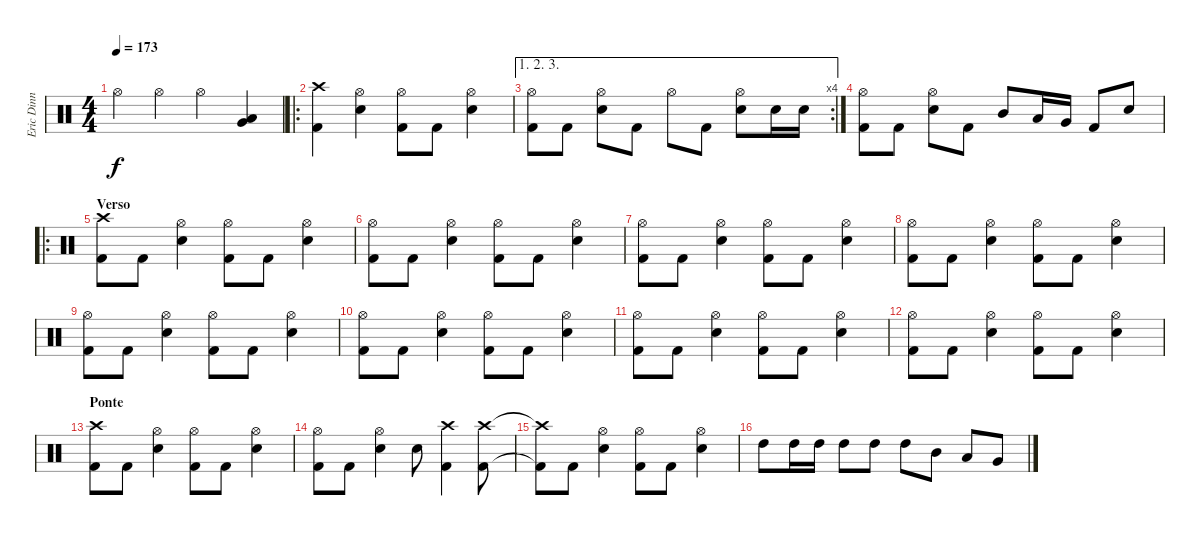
\track ("Eric Dinn" "Eric Dinn") {instrument percussion}
\staff {score}
\articulation defaults
\ts (4 4)
\tempo 173
\clef neutral
\ks c "Hi-Hat (open)".4{dy f} "Hi-Hat (open)".4 "Hi-Hat (open)".4
("Low Tom (hit)" "Very Low Tom (hit)").4 |
\ro
("Crash high (hit)" "Kick (hit) 2").4 ("Hi-Hat (open)" "Snare (hit) 2").4 ("Hi-Hat (open)" "Kick (hit) 2").8 "Kick (hit) 2".8 ("Hi-Hat (open)" "Snare (hit) 2").4 |
\ae (1 2 3)
\rc 4
("Hi-Hat (open)" "Kick (hit) 2").8 "Kick (hit) 2".8 ("Hi-Hat (open)" "Snare (hit) 2").8 "Kick (hit) 2".8 "Hi-Hat (open)".8 "Kick (hit) 2".8 ("Hi-Hat (open)" "Snare (hit) 2").8 "Snare (hit) 2".16 "Snare (hit) 2".16 |
("Hi-Hat (open)" "Kick (hit) 2").8 "Kick (hit) 2".8 ("Hi-Hat (open)" "Snare (hit) 2").8 "Kick (hit) 2".8 "Mid Tom (hit)".8 "Low Tom (hit)".16 "Very Low Tom (hit)".16 "Kick (hit) 2".8 "Snare (hit) 2".8 |
\ro
\section ("" "Verso")
("Crash high (hit)" "Kick (hit) 2").8 "Kick (hit) 2".8 ("Hi-Hat (open)" "Snare (hit) 2").4 ("Hi-Hat (open)" "Kick (hit) 2").8 "Kick (hit) 2".8 ("Hi-Hat (open)" "Snare (hit) 2").4 |
("Hi-Hat (open)" "Kick (hit) 2").8 "Kick (hit) 2".8 ("Hi-Hat (open)" "Snare (hit) 2").4 ("Hi-Hat (open)" "Kick (hit) 2").8 "Kick (hit) 2".8 ("Hi-Hat (open)" "Snare (hit) 2").4 |
("Hi-Hat (open)" "Kick (hit) 2").8 "Kick (hit) 2".8 ("Hi-Hat (open)" "Snare (hit) 2").4 ("Hi-Hat (open)" "Kick (hit) 2").8 "Kick (hit) 2".8 ("Hi-Hat (open)" "Snare (hit) 2").4 |
("Hi-Hat (open)" "Kick (hit) 2").8 "Kick (hit) 2".8 ("Hi-Hat (open)" "Snare (hit) 2").4 ("Hi-Hat (open)" "Kick (hit) 2").8 "Kick (hit) 2".8 ("Hi-Hat (open)" "Snare (hit) 2").4 |
("Hi-Hat (open)" "Kick (hit) 2").8 "Kick (hit) 2".8 ("Hi-Hat (open)" "Snare (hit) 2").4 ("Hi-Hat (open)" "Kick (hit) 2").8 "Kick (hit) 2".8 ("Hi-Hat (open)" "Snare (hit) 2").4 |
("Hi-Hat (open)" "Kick (hit) 2").8 "Kick (hit) 2".8 ("Hi-Hat (open)" "Snare (hit) 2").4 ("Hi-Hat (open)" "Kick (hit) 2").8 "Kick (hit) 2".8 ("Hi-Hat (open)" "Snare (hit) 2").4 |
("Hi-Hat (open)" "Kick (hit) 2").8 "Kick (hit) 2".8 ("Hi-Hat (open)" "Snare (hit) 2").4 ("Hi-Hat (open)" "Kick (hit) 2").8 "Kick (hit) 2".8 ("Hi-Hat (open)" "Snare (hit) 2").4 |
("Hi-Hat (open)" "Kick (hit) 2").8 "Kick (hit) 2".8 ("Hi-Hat (open)" "Snare (hit) 2").4 ("Hi-Hat (open)" "Kick (hit) 2").8 "Kick (hit) 2".8 ("Hi-Hat (open)" "Snare (hit) 2").4 |
\section ("" "Ponte")
("Crash high (hit)" "Kick (hit) 2").8 "Kick (hit) 2".8 ("Hi-Hat (open)" "Snare (hit) 2").4 ("Hi-Hat (open)" "Kick (hit) 2").8 "Kick (hit) 2".8 ("Hi-Hat (open)" "Snare (hit) 2").4 |
("Hi-Hat (open)" "Kick (hit) 2").8 "Kick (hit) 2".8 ("Hi-Hat (open)" "Snare (hit) 2").4 "Snare (hit) 2".8 ("Crash high (hit)" "Kick (hit) 2").4 ("Crash high (hit)" "Kick (hit) 2").8 |
("Crash high (hit)"{t} "Kick (hit) 2"{t}).8 "Kick (hit) 2".8 ("Hi-Hat (open)" "Snare (hit) 2").4 ("Hi-Hat (open)" "Kick (hit) 2").8 "Kick (hit) 2".8 ("Hi-Hat (open)" "Snare (hit) 2").4 |
"High Tom (hit)".8 "High Tom (hit)".16 "High Tom (hit)".16 "High Tom (hit)".8 "High Tom (hit)".8 "High Tom (hit)".8 "Mid Tom (hit)".8 "Low Tom (hit)".8 "Very Low Tom (hit)".8
